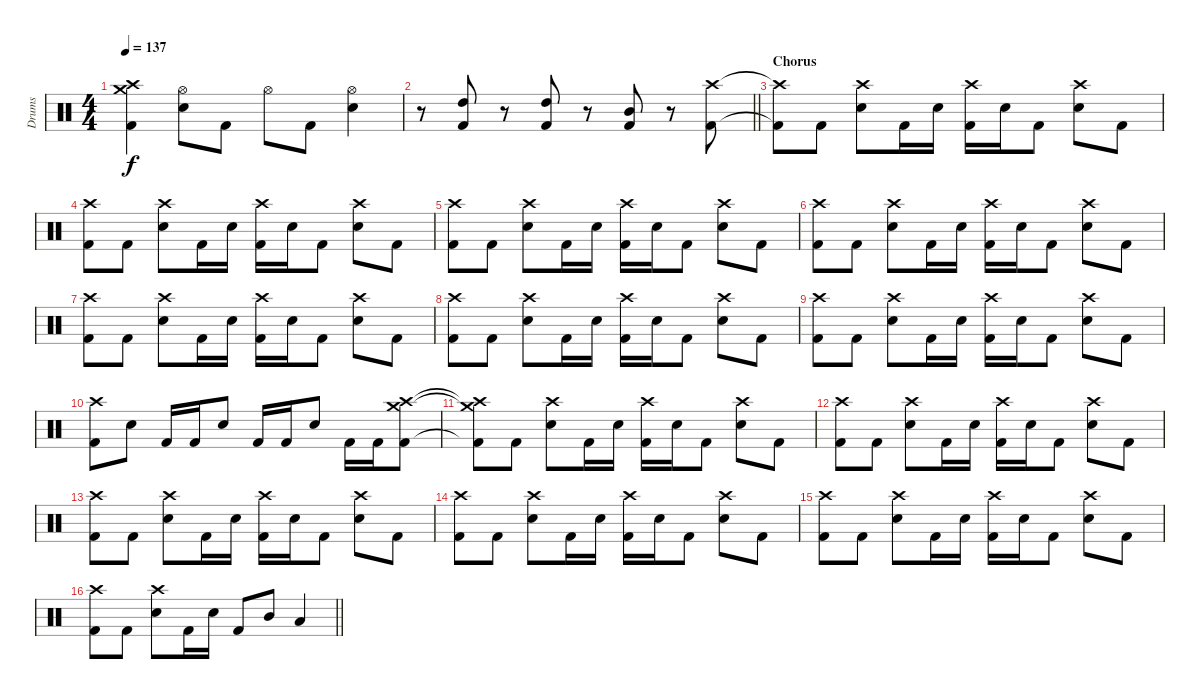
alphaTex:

\track ("Drums" "Drums") {instrument percussion}
\staff {score}
\articulation defaults
\ts (4 4)
\tempo 137
\clef neutral
\ks c
("Crash medium (hit)" "Crash high (hit)" "Kick (hit) 2").4{dy f} ("Hi-Hat (open)" "Electric Snare (hit)").8 "Kick (hit) 2".8 "Hi-Hat (open)".8 "Kick (hit) 2".8 ("Hi-Hat (open)" "Electric Snare (hit)").4 |
\barLineRight lightlight
r.8 ("High Tom (hit)" "Kick (hit) 2").8 r.8 ("High Tom (hit)" "Kick (hit) 2").8 r.8 ("Mid Tom (hit)" "Kick (hit) 2").8 r.8 ("Crash high (hit)" "Kick (hit) 2").8 |
\section ("" "Chorus")
("Crash high (hit)"{t} "Kick (hit) 2"{t}).8 "Kick (hit) 2".8 ("Crash high (hit)" "Electric Snare (hit)").8 "Kick (hit) 2".16 "Electric Snare (hit)".16 ("Crash high (hit)" "Kick (hit) 2").16 "Electric Snare (hit)".16 "Kick (hit) 2".8 ("Crash high (hit)" "Electric Snare (hit)").8 "Kick (hit) 2".8 |
("Crash high (hit)" "Kick (hit) 2").8 "Kick (hit) 2".8 ("Crash high (hit)" "Electric Snare (hit)").8 "Kick (hit) 2".16 "Electric Snare (hit)".16 ("Crash high (hit)" "Kick (hit) 2").16 "Electric Snare (hit)".16 "Kick (hit) 2".8 ("Crash high (hit)" "Electric Snare (hit)").8 "Kick (hit) 2".8 |
("Crash high (hit)" "Kick (hit) 2").8 "Kick (hit) 2".8 ("Crash high (hit)" "Electric Snare (hit)").8 "Kick (hit) 2".16 "Electric Snare (hit)".16 ("Crash high (hit)" "Kick (hit) 2").16 "Electric Snare (hit)".16 "Kick (hit) 2".8 ("Crash high (hit)" "Electric Snare (hit)").8 "Kick (hit) 2".8 |
("Crash high (hit)" "Kick (hit) 2").8 "Kick (hit) 2".8 ("Crash high (hit)" "Electric Snare (hit)").8 "Kick (hit) 2".16 "Electric Snare (hit)".16 ("Crash high (hit)" "Kick (hit) 2").16 "Electric Snare (hit)".16 "Kick (hit) 2".8 ("Crash high (hit)" "Electric Snare (hit)").8 "Kick (hit) 2".8 |
("Crash high (hit)" "Kick (hit) 2").8 "Kick (hit) 2".8 ("Crash high (hit)" "Electric Snare (hit)").8 "Kick (hit) 2".16 "Electric Snare (hit)".16 ("Crash high (hit)" "Kick (hit) 2").16 "Electric Snare (hit)".16 "Kick (hit) 2".8 ("Crash high (hit)" "Electric Snare (hit)").8 "Kick (hit) 2".8 |
("Crash high (hit)" "Kick (hit) 2").8 "Kick (hit) 2".8 ("Crash high (hit)" "Electric Snare (hit)").8 "Kick (hit) 2".16 "Electric Snare (hit)".16 ("Crash high (hit)" "Kick (hit) 2").16 "Electric Snare (hit)".16 "Kick (hit) 2".8 ("Crash high (hit)" "Electric Snare (hit)").8 "Kick (hit) 2".8 |
("Crash high (hit)" "Kick (hit) 2").8 "Kick (hit) 2".8 ("Crash high (hit)" "Electric Snare (hit)").8 "Kick (hit) 2".16 "Electric Snare (hit)".16 ("Crash high (hit)" "Kick (hit) 2").16 "Electric Snare (hit)".16 "Kick (hit) 2".8 ("Crash high (hit)" "Electric Snare (hit)").8 "Kick (hit) 2".8 |
("Crash high (hit)" "Kick (hit) 2").8 "Electric Snare (hit)".8 "Kick (hit) 2".16 "Kick (hit) 2".16 "Electric Snare (hit)".8 "Kick (hit) 2".16 "Kick (hit) 2".16 "Electric Snare (hit)".8 "Kick (hit) 2".16 "Kick (hit) 2".16 ("Crash medium (hit)" "Crash high (hit)" "Kick (hit) 2").8 |
("Crash medium (hit)"{t} "Crash high (hit)"{t} "Kick (hit) 2"{t}).8 "Kick (hit) 2".8 ("Crash high (hit)" "Electric Snare (hit)").8 "Kick (hit) 2".16 "Electric Snare (hit)".16 ("Crash high (hit)" "Kick (hit) 2").16 "Electric Snare (hit)".16 "Kick (hit) 2".8 ("Crash high (hit)" "Electric Snare (hit)").8 "Kick (hit) 2".8 |
("Crash high (hit)" "Kick (hit) 2").8 "Kick (hit) 2".8 ("Crash high (hit)" "Electric Snare (hit)").8 "Kick (hit) 2".16 "Electric Snare (hit)".16 ("Crash high (hit)" "Kick (hit) 2").16 "Electric Snare (hit)".16 "Kick (hit) 2".8 ("Crash high (hit)" "Electric Snare (hit)").8 "Kick (hit) 2".8 |
("Crash high (hit)" "Kick (hit) 2").8 "Kick (hit) 2".8 ("Crash high (hit)" "Electric Snare (hit)").8 "Kick (hit) 2".16 "Electric Snare (hit)".16 ("Crash high (hit)" "Kick (hit) 2").16 "Electric Snare (hit)".16 "Kick (hit) 2".8 ("Crash high (hit)" "Electric Snare (hit)").8 "Kick (hit) 2".8 |
("Crash high (hit)" "Kick (hit) 2").8 "Kick (hit) 2".8 ("Crash high (hit)" "Electric Snare (hit)").8 "Kick (hit) 2".16 "Electric Snare (hit)".16 ("Crash high (hit)" "Kick (hit) 2").16 "Electric Snare (hit)".16 "Kick (hit) 2".8 ("Crash high (hit)" "Electric Snare (hit)").8 "Kick (hit) 2".8 |
("Crash high (hit)" "Kick (hit) 2").8 "Kick (hit) 2".8 ("Crash high (hit)" "Electric Snare (hit)").8 "Kick (hit) 2".16 "Electric Snare (hit)".16 ("Crash high (hit)" "Kick (hit) 2").16 "Electric Snare (hit)".16 "Kick (hit) 2".8 ("Crash high (hit)" "Electric Snare (hit)").8 "Kick (hit) 2".8 |
\barLineRight lightlight
("Crash high (hit)" "Kick (hit) 2").8 "Kick (hit) 2".8 ("Crash high (hit)" "Electric Snare (hit)").8 "Kick (hit) 2".16 "Electric Snare (hit)".16 "Kick (hit) 2".8 "Mid Tom (hit)".8 "Low Tom (hit)".4
